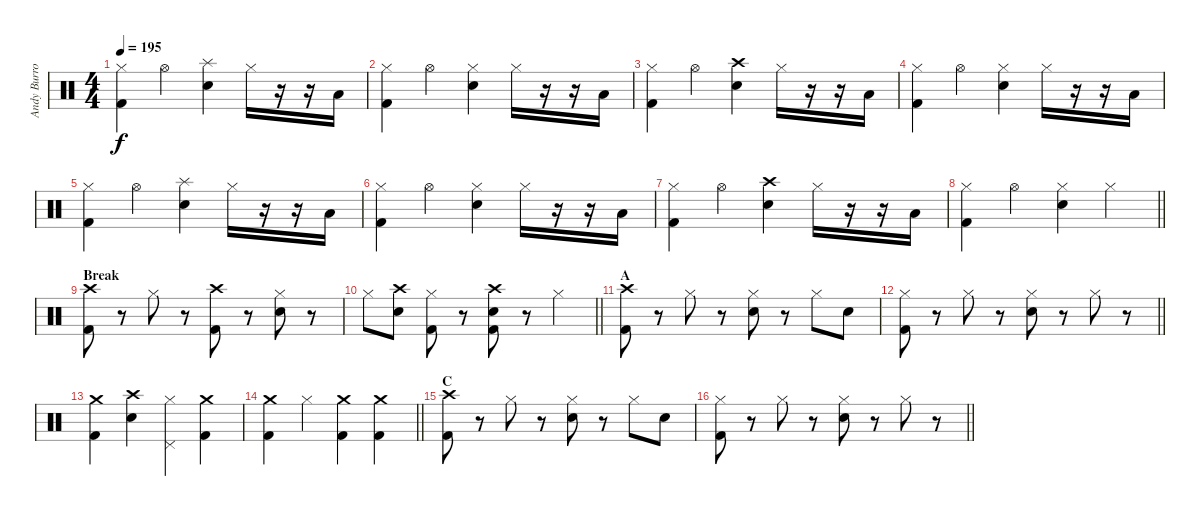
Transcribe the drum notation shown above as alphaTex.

\track ("Andy Burrows (drums)" "Andy Burro") {instrument percussion}
\staff {score}
\articulation defaults
\ts (4 4)
\tempo 195
\clef neutral
\ks c
("Hi-Hat (closed)" "Kick (hit) 2").4{dy f} "Hi-Hat (open)".4 ("Splash (hit)" "Electric Snare (hit)").4 "Hi-Hat (closed)".16 r.16 r.16 "Low Floor Tom (hit)".16 |
("Hi-Hat (closed)" "Kick (hit) 2").4 "Hi-Hat (open)".4 ("Hi-Hat (closed)" "Electric Snare (hit)").4 "Hi-Hat (closed)".16 r.16 r.16 "Low Floor Tom (hit)".16 |
("Hi-Hat (closed)" "Kick (hit) 2").4 "Hi-Hat (open)".4 ("Crash high (hit)" "Electric Snare (hit)").4 "Hi-Hat (closed)".16 r.16 r.16 "Low Floor Tom (hit)".16 |
("Hi-Hat (closed)" "Kick (hit) 2").4 "Hi-Hat (open)".4 ("Hi-Hat (closed)" "Electric Snare (hit)").4 "Hi-Hat (closed)".16 r.16 r.16 "Low Floor Tom (hit)".16 |
("Hi-Hat (closed)" "Kick (hit) 2").4 "Hi-Hat (open)".4 ("Splash (hit)" "Electric Snare (hit)").4 "Hi-Hat (closed)".16 r.16 r.16 "Low Floor Tom (hit)".16 |
("Hi-Hat (closed)" "Kick (hit) 2").4 "Hi-Hat (open)".4 ("Hi-Hat (closed)" "Electric Snare (hit)").4 "Hi-Hat (closed)".16 r.16 r.16 "Low Floor Tom (hit)".16 |
("Hi-Hat (closed)" "Kick (hit) 2").4 "Hi-Hat (open)".4 ("Crash high (hit)" "Electric Snare (hit)").4 "Hi-Hat (closed)".16 r.16 r.16 "Low Floor Tom (hit)".16 |
\barLineRight lightlight
("Hi-Hat (closed)" "Kick (hit) 2").4 "Hi-Hat (open)".4 ("Hi-Hat (closed)" "Electric Snare (hit)").4 "Hi-Hat (closed)".4 |
\section ("" "Break")
("Crash high (hit)" "Kick (hit) 2").8 r.8 "Hi-Hat (closed)".8 r.8 ("Crash high (hit)" "Kick (hit) 2").8 r.8 ("Hi-Hat (closed)" "Electric Snare (hit)").8 r.8 |
\barLineRight lightlight "Hi-Hat (closed)".8
("Crash high (hit)" "Electric Snare (hit)").8 ("Hi-Hat (closed)" "Kick (hit) 2").8 r.8 ("Crash high (hit)" "Electric Snare (hit)" "Kick (hit) 2").8 r.8 "Hi-Hat (closed)".4 |
\section ("" "A")
("Crash high (hit)" "Kick (hit) 2").8 r.8 "Hi-Hat (closed)".8 r.8 ("Hi-Hat (closed)" "Electric Snare (hit)").8 r.8 "Hi-Hat (closed)".8 "Electric Snare (hit)".8 |
\barLineRight lightlight
("Hi-Hat (closed)" "Kick (hit) 2").8 r.8 "Hi-Hat (closed)".8 r.8 ("Hi-Hat (closed)" "Electric Snare (hit)").8 r.8 "Hi-Hat (closed)".8 r.8 |
\section ("" "")
("Crash medium (hit)" "Kick (hit) 2").4 ("Crash high (hit)" "Electric Snare (hit)").4 ("Pedal Hi-Hat (hit)" "Hi-Hat (closed)").4 ("Crash medium (hit)" "Kick (hit) 2").4 |
\barLineRight lightlight
("Crash medium (hit)" "Kick (hit) 2").4 "Hi-Hat (closed)".4 ("Crash medium (hit)" "Kick (hit) 2").4 ("Crash medium (hit)" "Kick (hit) 2").4 |
\section ("" "C")
("Crash high (hit)" "Kick (hit) 2").8 r.8 "Hi-Hat (closed)".8 r.8 ("Hi-Hat (closed)" "Electric Snare (hit)").8 r.8 "Hi-Hat (closed)".8 "Electric Snare (hit)".8 |
\barLineRight lightlight
("Hi-Hat (closed)" "Kick (hit) 2").8 r.8 "Hi-Hat (closed)".8 r.8 ("Hi-Hat (closed)" "Electric Snare (hit)").8 r.8 "Hi-Hat (closed)".8 r.8
